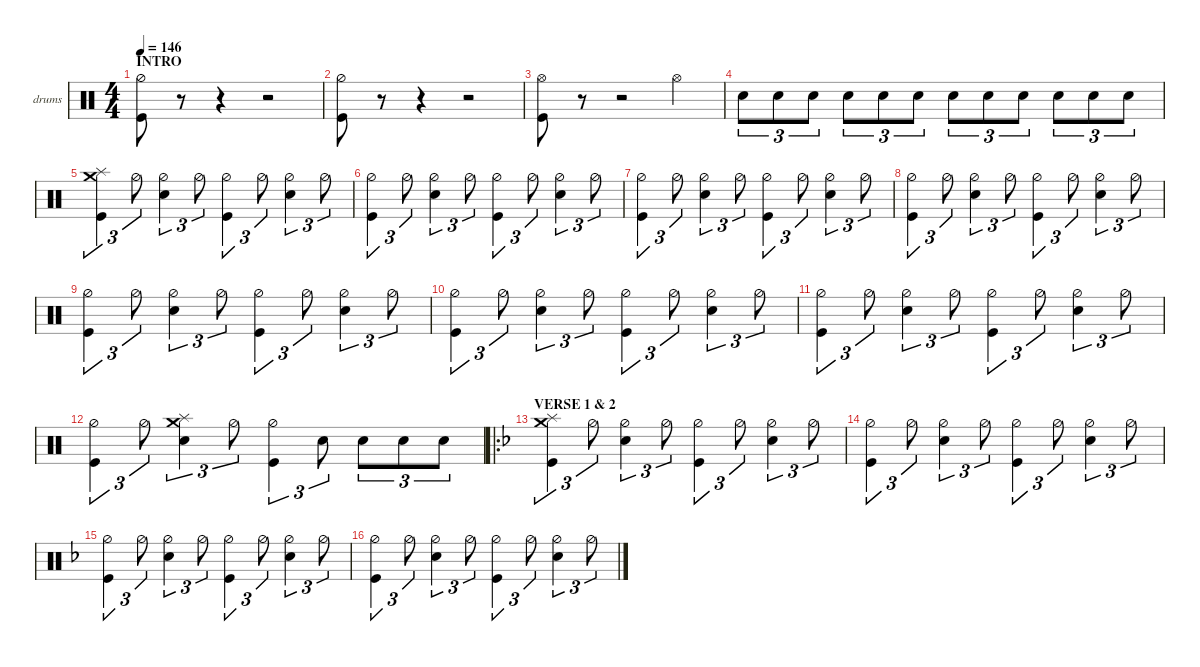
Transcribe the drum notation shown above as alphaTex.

\defaultSystemsLayout 4
\hideDynamics
\bracketExtendMode nobrackets
\firstSystemTrackNameOrientation horizontal
\otherSystemsTrackNameOrientation horizontal
\track ("drums" "drums") {instrument percussion}
\staff {score}
\articulation defaults
\ts (4 4)
\section ("" "INTRO ")
\tempo 146
\clef neutral
\scale
1.11643
\ks aminor
("Kick (hit)" "Hi-Hat (half)").8{dy mf} r.8 r.4 r.2 |
\scale
0.961191 ("Kick (hit)" "Hi-Hat (half)").8 r.8 r.4 r.2 |
\scale
0.961191 ("Kick (hit)" "Hi-Hat (open)").8 r.8 r.2 "Hi-Hat (open)".4 |
\scale
0.961191 "Snare (hit) 2".8{tu (3 2) dy pp} "Snare (hit) 2".8{tu (3 2)} "Snare (hit) 2".8{tu (3 2)} "Snare (hit) 2".8{tu (3 2) dy p} "Snare (hit) 2".8{tu (3 2)} "Snare (hit) 2".8{tu (3 2)} "Snare (hit) 2".8{tu (3 2) dy mp} "Snare (hit) 2".8{tu (3 2)} "Snare (hit) 2".8{tu (3 2)} "Snare (hit) 2".8{tu (3 2) dy mf} "Snare (hit) 2".8{tu (3 2)} "Snare (hit) 2".8{tu (3 2)} |
\scale
1.06392 ("Kick (hit)" "Splash (hit)" "Crash medium (hit)").4{tu (3 2)} "Hi-Hat (half)".8{tu (3 2)} ("Hi-Hat (half)" "Snare (hit) 2").4{tu (3 2)} "Hi-Hat (half)".8{tu (3 2)} ("Kick (hit)" "Hi-Hat (half)").4{tu (3 2)} "Hi-Hat (half)".8{tu (3 2)} ("Hi-Hat (half)" "Snare (hit) 2").4{tu (3 2)} "Hi-Hat (half)".8{tu (3 2)} |
\scale
0.978695 ("Kick (hit)" "Hi-Hat (half)").4{tu (3 2)} "Hi-Hat (half)".8{tu (3 2)} ("Hi-Hat (half)" "Snare (hit) 2").4{tu (3 2)} "Hi-Hat (half)".8{tu (3 2)} ("Kick (hit)" "Hi-Hat (half)").4{tu (3 2)} "Hi-Hat (half)".8{tu (3 2)} ("Hi-Hat (half)" "Snare (hit) 2").4{tu (3 2)} "Hi-Hat (half)".8{tu (3 2)} |
\scale
0.978695 ("Kick (hit)" "Hi-Hat (half)").4{tu (3 2)} "Hi-Hat (half)".8{tu (3 2)} ("Hi-Hat (half)" "Snare (hit) 2").4{tu (3 2)} "Hi-Hat (half)".8{tu (3 2)} ("Kick (hit)" "Hi-Hat (half)").4{tu (3 2)} "Hi-Hat (half)".8{tu (3 2)} ("Hi-Hat (half)" "Snare (hit) 2").4{tu (3 2)} "Hi-Hat (half)".8{tu (3 2)} |
\scale
0.978695 ("Kick (hit)" "Hi-Hat (half)").4{tu (3 2)} "Hi-Hat (half)".8{tu (3 2)} ("Hi-Hat (half)" "Snare (hit) 2").4{tu (3 2)} "Hi-Hat (half)".8{tu (3 2)} ("Kick (hit)" "Hi-Hat (half)").4{tu (3 2)} "Hi-Hat (half)".8{tu (3 2)} ("Hi-Hat (half)" "Snare (hit) 2").4{tu (3 2)} "Hi-Hat (half)".8{tu (3 2)} |
\scale
1.05949 ("Kick (hit)" "Hi-Hat (half)").4{tu (3 2)} "Hi-Hat (half)".8{tu (3 2)} ("Hi-Hat (half)" "Snare (hit) 2").4{tu (3 2)} "Hi-Hat (half)".8{tu (3 2)} ("Kick (hit)" "Hi-Hat (half)").4{tu (3 2)} "Hi-Hat (half)".8{tu (3 2)} ("Hi-Hat (half)" "Snare (hit) 2").4{tu (3 2)} "Hi-Hat (half)".8{tu (3 2)} |
\scale
0.974274 ("Kick (hit)" "Hi-Hat (half)").4{tu (3 2)} "Hi-Hat (half)".8{tu (3 2)} ("Hi-Hat (half)" "Snare (hit) 2").4{tu (3 2)} "Hi-Hat (half)".8{tu (3 2)} ("Kick (hit)" "Hi-Hat (half)").4{tu (3 2)} "Hi-Hat (half)".8{tu (3 2)} ("Hi-Hat (half)" "Snare (hit) 2").4{tu (3 2)} "Hi-Hat (half)".8{tu (3 2)} |
\scale
0.974274 ("Kick (hit)" "Hi-Hat (half)").4{tu (3 2)} "Hi-Hat (half)".8{tu (3 2)} ("Hi-Hat (half)" "Snare (hit) 2").4{tu (3 2)} "Hi-Hat (half)".8{tu (3 2)} ("Kick (hit)" "Hi-Hat (half)").4{tu (3 2)} "Hi-Hat (half)".8{tu (3 2)} ("Hi-Hat (half)" "Snare (hit) 2").4{tu (3 2)} "Hi-Hat (half)".8{tu (3 2)} |
\scale
0.991958 ("Kick (hit)" "Hi-Hat (half)").4{tu (3 2)} "Hi-Hat (half)".8{tu (3 2)} ("Splash (hit)" "Crash medium (hit)" "Snare (hit) 2").4{tu (3 2)} "Hi-Hat (half)".8{tu (3 2)} ("Kick (hit)" "Hi-Hat (half)").4{tu (3 2)} "Snare (hit) 2".8{tu (3 2)} "Snare (hit) 2".8{tu (3 2)} "Snare (hit) 2".8{tu (3 2)} "Snare (hit) 2".8{tu (3 2)} |
\ro
\section ("" "VERSE 1 & 2")
\scale
1.09054
\ks f
("Kick (hit)" "Splash (hit)" "Crash medium (hit)").4{tu (3 2)} "Hi-Hat (half)".8{tu (3 2)} ("Hi-Hat (half)" "Snare (hit) 2").4{tu (3 2)} "Hi-Hat (half)".8{tu (3 2)} ("Kick (hit)" "Hi-Hat (half)").4{tu (3 2)} "Hi-Hat (half)".8{tu (3 2)} ("Hi-Hat (half)" "Snare (hit) 2").4{tu (3 2)} "Hi-Hat (half)".8{tu (3 2)} |
\scale
0.969821 ("Kick (hit)" "Hi-Hat (half)").4{tu (3 2)} "Hi-Hat (half)".8{tu (3 2)} ("Hi-Hat (half)" "Snare (hit) 2").4{tu (3 2)} "Hi-Hat (half)".8{tu (3 2)} ("Kick (hit)" "Hi-Hat (half)").4{tu (3 2)} "Hi-Hat (half)".8{tu (3 2)} ("Hi-Hat (half)" "Snare (hit) 2").4{tu (3 2)} "Hi-Hat (half)".8{tu (3 2)} |
\scale
0.969821 ("Kick (hit)" "Hi-Hat (half)").4{tu (3 2)} "Hi-Hat (half)".8{tu (3 2)} ("Hi-Hat (half)" "Snare (hit) 2").4{tu (3 2)} "Hi-Hat (half)".8{tu (3 2)} ("Kick (hit)" "Hi-Hat (half)").4{tu (3 2)} "Hi-Hat (half)".8{tu (3 2)} ("Hi-Hat (half)" "Snare (hit) 2").4{tu (3 2)} "Hi-Hat (half)".8{tu (3 2)} |
\scale
0.969821 ("Kick (hit)" "Hi-Hat (half)").4{tu (3 2)} "Hi-Hat (half)".8{tu (3 2)} ("Hi-Hat (half)" "Snare (hit) 2").4{tu (3 2)} "Hi-Hat (half)".8{tu (3 2)} ("Kick (hit)" "Hi-Hat (half)").4{tu (3 2)} "Hi-Hat (half)".8{tu (3 2)} ("Hi-Hat (half)" "Snare (hit) 2").4{tu (3 2)} "Hi-Hat (half)".8{tu (3 2)}
